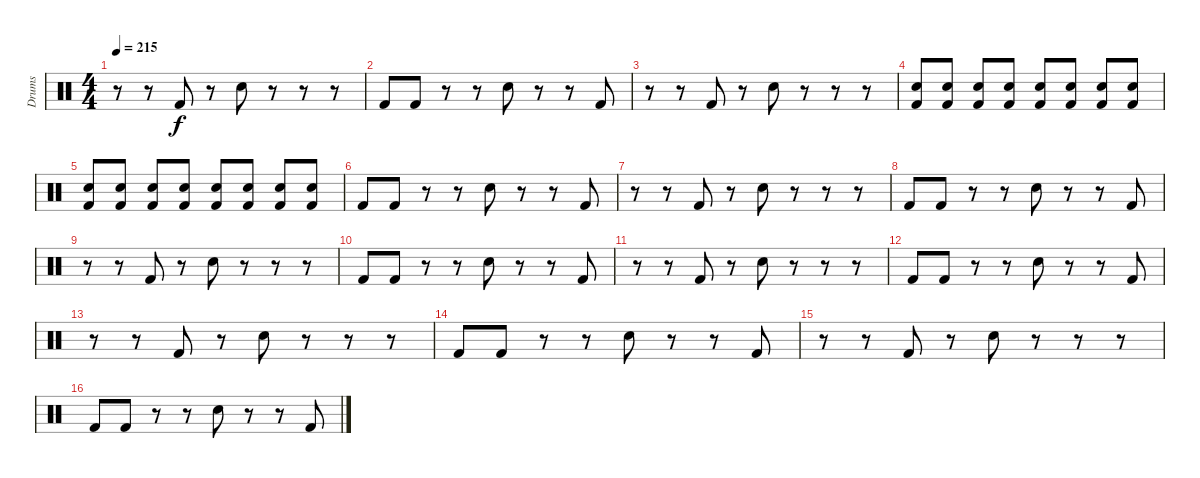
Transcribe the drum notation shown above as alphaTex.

\track ("Drums" "Drums") {instrument percussion}
\staff {score}
\articulation defaults
\ts (4 4)
\tempo 215
\clef neutral
\ks c
r.8{dy f} r.8 "Kick (hit) 2".8 r.8 "Electric Snare (hit)".8 r.8 r.8 r.8 |
"Kick (hit) 2".8 "Kick (hit) 2".8 r.8 r.8 "Electric Snare (hit)".8 r.8 r.8 "Kick (hit) 2".8 |
r.8 r.8 "Kick (hit) 2".8 r.8 "Electric Snare (hit)".8 r.8 r.8 r.8 |
("Kick (hit) 2" "Electric Snare (hit)").8 ("Kick (hit) 2" "Electric Snare (hit)").8 ("Kick (hit) 2" "Electric Snare (hit)").8 ("Kick (hit) 2" "Electric Snare (hit)").8 ("Kick (hit) 2" "Electric Snare (hit)").8 ("Kick (hit) 2" "Snare (hit) 2").8 ("Kick (hit) 2" "Snare (hit) 2").8 ("Kick (hit) 2" "Snare (hit) 2").8 |
("Kick (hit) 2" "Snare (hit) 2").8 ("Kick (hit) 2" "Snare (hit) 2").8 ("Kick (hit) 2" "Snare (hit) 2").8 ("Kick (hit) 2" "Snare (hit) 2").8 ("Kick (hit) 2" "Snare (hit) 2").8 ("Kick (hit) 2" "Snare (hit) 2").8 ("Kick (hit) 2" "Snare (hit) 2").8 ("Kick (hit) 2" "Snare (hit) 2").8 |
"Kick (hit) 2".8 "Kick (hit) 2".8 r.8 r.8 "Electric Snare (hit)".8 r.8 r.8 "Kick (hit) 2".8 |
r.8 r.8 "Kick (hit) 2".8 r.8 "Electric Snare (hit)".8 r.8 r.8 r.8 |
"Kick (hit) 2".8 "Kick (hit) 2".8 r.8 r.8 "Electric Snare (hit)".8 r.8 r.8 "Kick (hit) 2".8 |
r.8 r.8 "Kick (hit) 2".8 r.8 "Electric Snare (hit)".8 r.8 r.8 r.8 |
"Kick (hit) 2".8 "Kick (hit) 2".8 r.8 r.8 "Electric Snare (hit)".8 r.8 r.8 "Kick (hit) 2".8 |
r.8 r.8 "Kick (hit) 2".8 r.8 "Electric Snare (hit)".8 r.8 r.8 r.8 |
"Kick (hit) 2".8 "Kick (hit) 2".8 r.8 r.8 "Electric Snare (hit)".8 r.8 r.8 "Kick (hit) 2".8 |
r.8 r.8 "Kick (hit) 2".8 r.8 "Electric Snare (hit)".8 r.8 r.8 r.8 |
"Kick (hit) 2".8 "Kick (hit) 2".8 r.8 r.8 "Electric Snare (hit)".8 r.8 r.8 "Kick (hit) 2".8 |
r.8 r.8 "Kick (hit) 2".8 r.8 "Electric Snare (hit)".8 r.8 r.8 r.8 |
"Kick (hit) 2".8 "Kick (hit) 2".8 r.8 r.8 "Electric Snare (hit)".8 r.8 r.8 "Kick (hit) 2".8
